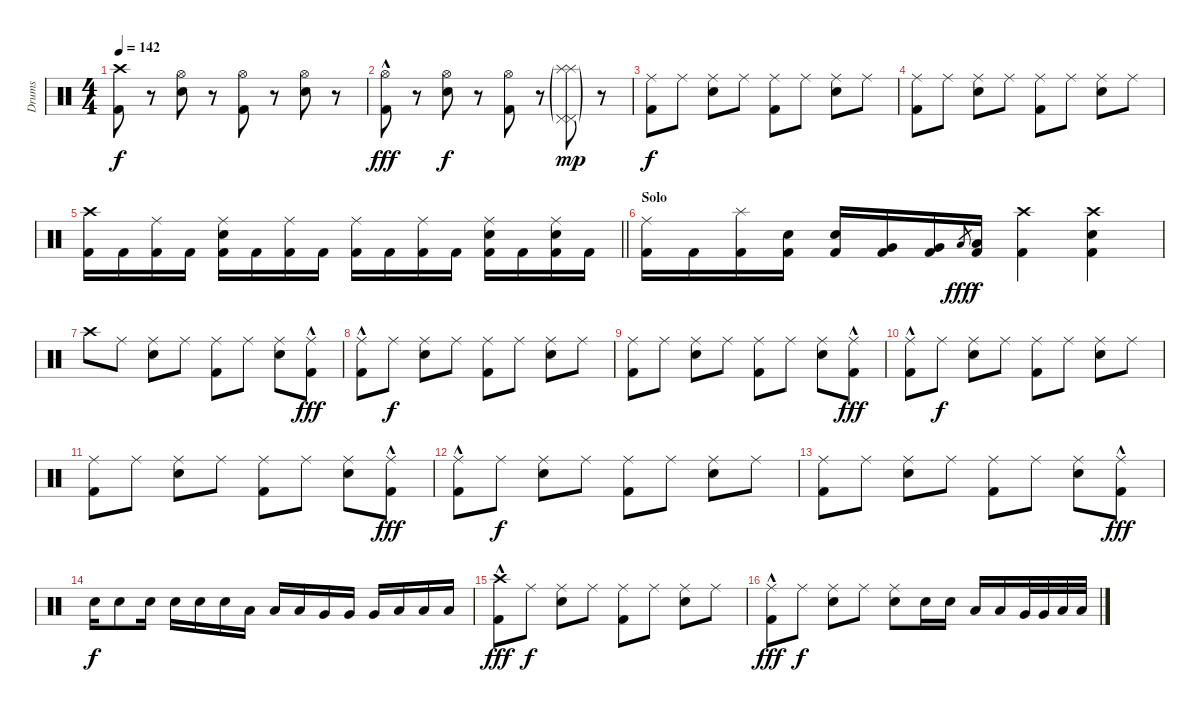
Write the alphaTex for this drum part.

\track ("Drums" "Drums") {instrument percussion}
\staff {score}
\articulation defaults
\ts (4 4)
\tempo 142
\clef neutral
\ks c
("Crash high (hit)" "Kick (hit) 2").8{dy f} r.8 ("Hi-Hat (open)" "Electric Snare (hit)").8 r.8 ("Hi-Hat (open)" "Kick (hit) 2").8 r.8 ("Hi-Hat (open)" "Electric Snare (hit)").8 r.8 |
("Hi-Hat (open)" "Kick (hit) 2"{hac}).8{dy fff} r.8 ("Hi-Hat (open)" "Electric Snare (hit)").8{dy f} r.8 ("Hi-Hat (open)" "Kick (hit) 2").8 r.8 ("Splash (hit)"{g} "Pedal Hi-Hat (hit)"{g} "Pedal Hi-Hat (hit)"{g} "Splash (hit)"{g}).8{dy mp} r.8 |
("Ride (middle)" "Kick (hit) 2").8{dy f} "Ride (middle)".8 ("Ride (middle)" "Electric Snare (hit)").8 "Ride (middle)".8 ("Ride (middle)" "Kick (hit) 2").8 "Ride (middle)".8 ("Ride (middle)" "Electric Snare (hit)").8 "Ride (middle)".8 |
("Ride (middle)" "Kick (hit) 2").8 "Ride (middle)".8 ("Ride (middle)" "Electric Snare (hit)").8 "Ride (middle)".8 ("Ride (middle)" "Kick (hit) 2").8 "Ride (middle)".8 ("Ride (middle)" "Electric Snare (hit)").8 "Ride (middle)".8 |
\barLineRight lightlight
("Crash high (hit)" "Kick (hit) 2").16 "Kick (hit) 2".16 ("Ride (middle)" "Kick (hit) 2").16 "Kick (hit) 2".16 ("Ride (middle)" "Electric Snare (hit)" "Kick (hit) 2").16 "Kick (hit) 2".16 ("Ride (middle)" "Kick (hit) 2").16 "Kick (hit) 2".16 ("Ride (middle)" "Kick (hit) 2").16 "Kick (hit) 2".16 ("Ride (middle)" "Kick (hit) 2").16 "Kick (hit) 2".16 ("Ride (middle)" "Electric Snare (hit)" "Kick (hit) 2").16 "Kick (hit) 2".16 ("Ride (middle)" "Electric Snare (hit)" "Kick (hit) 2").16 "Kick (hit) 2".16 |
\section ("" "Solo")
("Ride (middle)" "Kick (hit) 2").16 "Kick (hit) 2".16 ("Splash (hit)" "Kick (hit) 2").16 ("Electric Snare (hit)" "Kick (hit) 2").16 ("Electric Snare (hit)" "Kick (hit) 2").16 ("Very Low Tom (hit)" "Kick (hit) 2").16 ("Very Low Tom (hit)" "Kick (hit) 2").16 "Low Floor Tom (hit)".8{gr dy fff} ("Low Floor Tom (hit)" "Kick (hit) 2").16{dy f} ("Crash high (hit)" "Kick (hit) 2").4 ("Crash high (hit)" "Electric Snare (hit)" "Kick (hit) 2").4 |
"Crash high (hit)".8 "Ride (middle)".8 ("Ride (middle)" "Electric Snare (hit)").8 "Ride (middle)".8 ("Ride (middle)" "Kick (hit) 2").8 "Ride (middle)".8 ("Ride (middle)" "Electric Snare (hit)").8 ("Ride (middle)" "Kick (hit) 2"{hac}).8{dy fff} |
("Ride (middle)" "Kick (hit) 2"{hac}).8 "Ride (middle)".8{dy f} ("Ride (middle)" "Electric Snare (hit)").8 "Ride (middle)".8 ("Ride (middle)" "Kick (hit) 2").8 "Ride (middle)".8 ("Ride (middle)" "Electric Snare (hit)").8 "Ride (middle)".8 |
("Ride (middle)" "Kick (hit) 2").8 "Ride (middle)".8 ("Ride (middle)" "Electric Snare (hit)").8 "Ride (middle)".8 ("Ride (middle)" "Kick (hit) 2").8 "Ride (middle)".8 ("Ride (middle)" "Electric Snare (hit)").8 ("Ride (middle)" "Kick (hit) 2"{hac}).8{dy fff} |
("Ride (middle)" "Kick (hit) 2"{hac}).8 "Ride (middle)".8{dy f} ("Ride (middle)" "Electric Snare (hit)").8 "Ride (middle)".8 ("Ride (middle)" "Kick (hit) 2").8 "Ride (middle)".8 ("Ride (middle)" "Electric Snare (hit)").8 "Ride (middle)".8 |
("Ride (middle)" "Kick (hit) 2").8 "Ride (middle)".8 ("Ride (middle)" "Electric Snare (hit)").8 "Ride (middle)".8 ("Ride (middle)" "Kick (hit) 2").8 "Ride (middle)".8 ("Ride (middle)" "Electric Snare (hit)").8 ("Ride (middle)" "Kick (hit) 2"{hac}).8{dy fff} |
("Ride (middle)" "Kick (hit) 2"{hac}).8 "Ride (middle)".8{dy f} ("Ride (middle)" "Electric Snare (hit)").8 "Ride (middle)".8 ("Ride (middle)" "Kick (hit) 2").8 "Ride (middle)".8 ("Ride (middle)" "Electric Snare (hit)").8 "Ride (middle)".8 |
("Ride (middle)" "Kick (hit) 2").8 "Ride (middle)".8 ("Ride (middle)" "Electric Snare (hit)").8 "Ride (middle)".8 ("Ride (middle)" "Kick (hit) 2").8 "Ride (middle)".8 ("Ride (middle)" "Electric Snare (hit)").8 ("Ride (middle)" "Kick (hit) 2"{hac}).8{dy fff} |
"Electric Snare (hit)".16{dy f} "Electric Snare (hit)".8 "Electric Snare (hit)".16 "Electric Snare (hit)".16 "Electric Snare (hit)".16 "Electric Snare (hit)".16 "Low Tom (hit)".16 "Low Tom (hit)".16 "Low Tom (hit)".16 "Very Low Tom (hit)".16 "Very Low Tom (hit)".16 "Very Low Tom (hit)".16 "Low Floor Tom (hit)".16 "Low Floor Tom (hit)".16 "Low Floor Tom (hit)".16 |
("Crash high (hit)" "Kick (hit) 2"{hac}).8{dy fff} "Ride (middle)".8{dy f} ("Ride (middle)" "Electric Snare (hit)").8 "Ride (middle)".8 ("Ride (middle)" "Kick (hit) 2").8 "Ride (middle)".8 ("Ride (middle)" "Electric Snare (hit)").8 "Ride (middle)".8 |
("Ride (middle)" "Kick (hit) 2"{hac}).8{dy fff} "Ride (middle)".8{dy f} ("Ride (middle)" "Electric Snare (hit)").8 "Ride (middle)".8 ("Ride (middle)" "Snare (hit) 2").8 "Electric Snare (hit)".16 "Electric Snare (hit)".16 "Low Tom (hit)".16 "Low Tom (hit)".16 "Very Low Tom (hit)".32 "Very Low Tom (hit)".32 "Low Floor Tom (hit)".32 "Low Floor Tom (hit)".32
